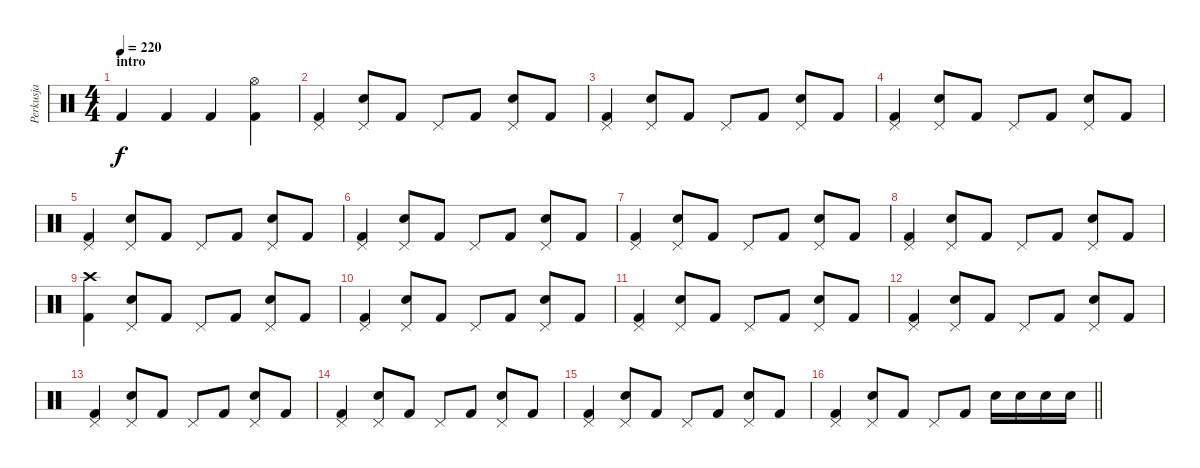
\track ("Perkusja" "Perkusja") {instrument percussion}
\staff {score}
\articulation defaults
\ts (4 4)
\section ("" "intro")
\tempo 220
\clef neutral
\ks c "Kick (hit) 2".4{dy f} "Kick (hit) 2".4 "Kick (hit) 2".4
("Hi-Hat (open)" "Kick (hit) 2").4 |
("Pedal Hi-Hat (hit)" "Kick (hit) 2").4 ("Pedal Hi-Hat (hit)" "Snare (hit) 2").8 "Kick (hit) 2".8 "Pedal Hi-Hat (hit)".8 "Kick (hit) 2".8 ("Pedal Hi-Hat (hit)" "Snare (hit) 2").8 "Kick (hit) 2".8 |
("Pedal Hi-Hat (hit)" "Kick (hit) 2").4 ("Pedal Hi-Hat (hit)" "Snare (hit) 2").8 "Kick (hit) 2".8 "Pedal Hi-Hat (hit)".8 "Kick (hit) 2".8 ("Pedal Hi-Hat (hit)" "Snare (hit) 2").8 "Kick (hit) 2".8 |
("Pedal Hi-Hat (hit)" "Kick (hit) 2").4 ("Pedal Hi-Hat (hit)" "Snare (hit) 2").8 "Kick (hit) 2".8 "Pedal Hi-Hat (hit)".8 "Kick (hit) 2".8 ("Pedal Hi-Hat (hit)" "Snare (hit) 2").8 "Kick (hit) 2".8 |
("Pedal Hi-Hat (hit)" "Kick (hit) 2").4 ("Pedal Hi-Hat (hit)" "Snare (hit) 2").8 "Kick (hit) 2".8 "Pedal Hi-Hat (hit)".8 "Kick (hit) 2".8 ("Pedal Hi-Hat (hit)" "Snare (hit) 2").8 "Kick (hit) 2".8 |
("Pedal Hi-Hat (hit)" "Kick (hit) 2").4 ("Pedal Hi-Hat (hit)" "Snare (hit) 2").8 "Kick (hit) 2".8 "Pedal Hi-Hat (hit)".8 "Kick (hit) 2".8 ("Pedal Hi-Hat (hit)" "Snare (hit) 2").8 "Kick (hit) 2".8 |
("Pedal Hi-Hat (hit)" "Kick (hit) 2").4 ("Pedal Hi-Hat (hit)" "Snare (hit) 2").8 "Kick (hit) 2".8 "Pedal Hi-Hat (hit)".8 "Kick (hit) 2".8 ("Pedal Hi-Hat (hit)" "Snare (hit) 2").8 "Kick (hit) 2".8 |
("Pedal Hi-Hat (hit)" "Kick (hit) 2").4 ("Pedal Hi-Hat (hit)" "Snare (hit) 2").8 "Kick (hit) 2".8 "Pedal Hi-Hat (hit)".8 "Kick (hit) 2".8 ("Pedal Hi-Hat (hit)" "Snare (hit) 2").8 "Kick (hit) 2".8 |
("Crash high (hit)" "Kick (hit) 2").4 ("Pedal Hi-Hat (hit)" "Snare (hit) 2").8 "Kick (hit) 2".8 "Pedal Hi-Hat (hit)".8 "Kick (hit) 2".8 ("Pedal Hi-Hat (hit)" "Snare (hit) 2").8 "Kick (hit) 2".8 |
("Pedal Hi-Hat (hit)" "Kick (hit) 2").4 ("Pedal Hi-Hat (hit)" "Snare (hit) 2").8 "Kick (hit) 2".8 "Pedal Hi-Hat (hit)".8 "Kick (hit) 2".8 ("Pedal Hi-Hat (hit)" "Snare (hit) 2").8 "Kick (hit) 2".8 |
("Pedal Hi-Hat (hit)" "Kick (hit) 2").4 ("Pedal Hi-Hat (hit)" "Snare (hit) 2").8 "Kick (hit) 2".8 "Pedal Hi-Hat (hit)".8 "Kick (hit) 2".8 ("Pedal Hi-Hat (hit)" "Snare (hit) 2").8 "Kick (hit) 2".8 |
("Pedal Hi-Hat (hit)" "Kick (hit) 2").4 ("Pedal Hi-Hat (hit)" "Snare (hit) 2").8 "Kick (hit) 2".8 "Pedal Hi-Hat (hit)".8 "Kick (hit) 2".8 ("Pedal Hi-Hat (hit)" "Snare (hit) 2").8 "Kick (hit) 2".8 |
("Pedal Hi-Hat (hit)" "Kick (hit) 2").4 ("Pedal Hi-Hat (hit)" "Snare (hit) 2").8 "Kick (hit) 2".8 "Pedal Hi-Hat (hit)".8 "Kick (hit) 2".8 ("Pedal Hi-Hat (hit)" "Snare (hit) 2").8 "Kick (hit) 2".8 |
("Pedal Hi-Hat (hit)" "Kick (hit) 2").4 ("Pedal Hi-Hat (hit)" "Snare (hit) 2").8 "Kick (hit) 2".8 "Pedal Hi-Hat (hit)".8 "Kick (hit) 2".8 ("Pedal Hi-Hat (hit)" "Snare (hit) 2").8 "Kick (hit) 2".8 |
("Pedal Hi-Hat (hit)" "Kick (hit) 2").4 ("Pedal Hi-Hat (hit)" "Snare (hit) 2").8 "Kick (hit) 2".8 "Pedal Hi-Hat (hit)".8 "Kick (hit) 2".8 ("Pedal Hi-Hat (hit)" "Snare (hit) 2").8 "Kick (hit) 2".8 |
\barLineRight lightlight
("Pedal Hi-Hat (hit)" "Kick (hit) 2").4 ("Pedal Hi-Hat (hit)" "Snare (hit) 2").8 "Kick (hit) 2".8 "Pedal Hi-Hat (hit)".8 "Kick (hit) 2".8 "Snare (hit) 2".16 "Snare (hit) 2".16 "Snare (hit) 2".16 "Snare (hit) 2".16
